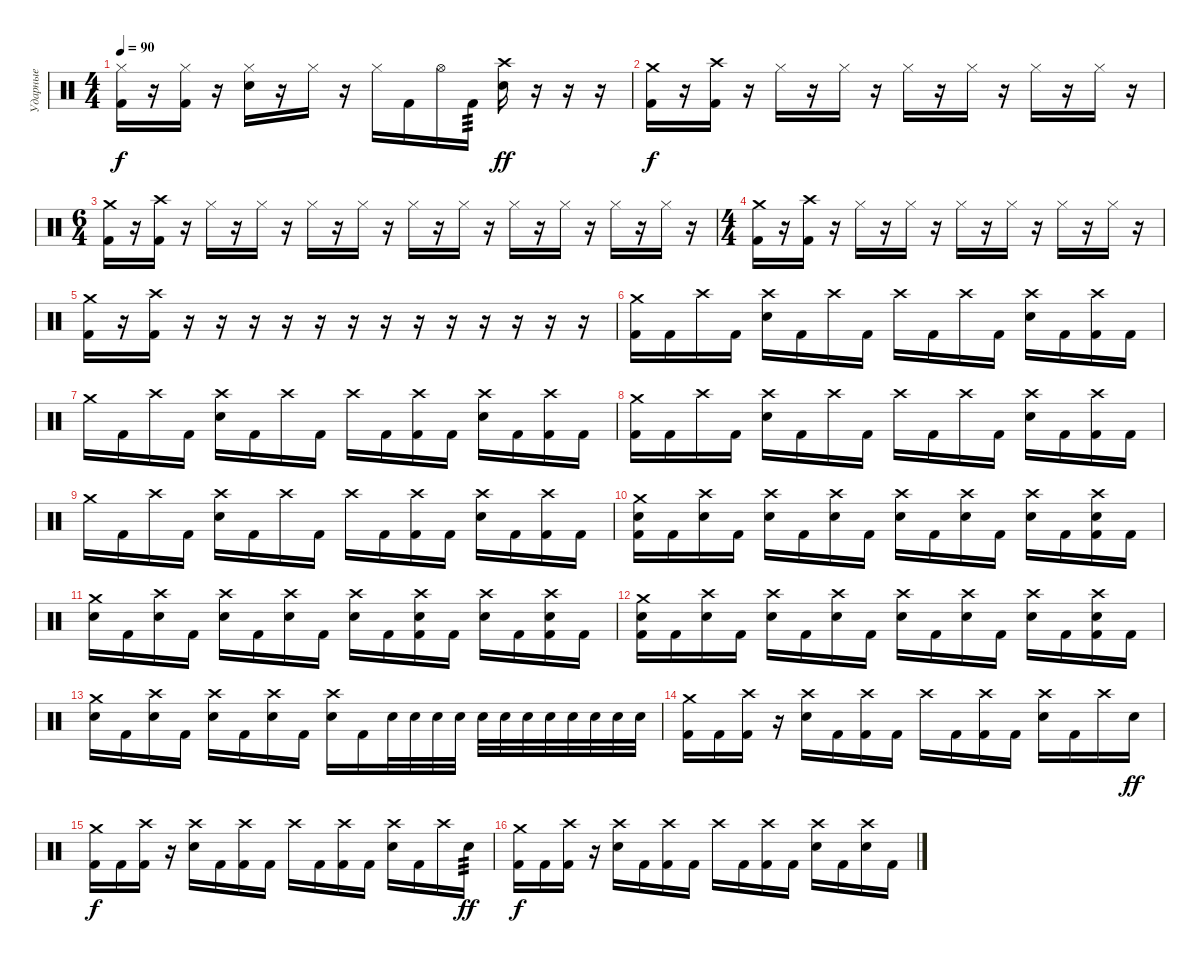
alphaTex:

\track ("Ударные" "Ударные") {instrument percussion}
\staff {score}
\articulation defaults
\ts (4 4)
\tempo 90
\clef neutral
\ks c
("Hi-Hat (closed)" "Kick (hit) 2").16{dy f} r.16 ("Hi-Hat (closed)" "Kick (hit) 2").16 r.16 ("Hi-Hat (closed)" "Electric Snare (hit)").16 r.16 "Hi-Hat (closed)".16 r.16 "Hi-Hat (closed)".16 "Kick (hit) 2".16 "Hi-Hat (open)".16 "Kick (hit) 2".16{tp 3} ("Crash high (hit)" "Electric Snare (hit)").16{dy ff} r.16 r.16 r.16 |
("Crash medium (hit)" "Kick (hit) 2").16{dy f} r.16 ("Crash high (hit)" "Kick (hit) 2").16 r.16 "Hi-Hat (closed)".16 r.16 "Hi-Hat (closed)".16 r.16 "Hi-Hat (closed)".16 r.16 "Hi-Hat (closed)".16 r.16 "Hi-Hat (closed)".16 r.16 "Hi-Hat (closed)".16 r.16 |
\ts (6 4)
("Crash medium (hit)" "Kick (hit) 2").16 r.16 ("Crash high (hit)" "Kick (hit) 2").16 r.16 "Hi-Hat (closed)".16 r.16 "Hi-Hat (closed)".16 r.16 "Hi-Hat (closed)".16 r.16 "Hi-Hat (closed)".16 r.16 "Hi-Hat (closed)".16 r.16 "Hi-Hat (closed)".16 r.16 "Hi-Hat (closed)".16 r.16 "Hi-Hat (closed)".16 r.16 "Hi-Hat (closed)".16 r.16 "Hi-Hat (closed)".16 r.16 |
\ts (4 4)
("Crash medium (hit)" "Kick (hit) 2").16 r.16 ("Crash high (hit)" "Kick (hit) 2").16 r.16 "Hi-Hat (closed)".16 r.16 "Hi-Hat (closed)".16 r.16 "Hi-Hat (closed)".16 r.16 "Hi-Hat (closed)".16 r.16 "Hi-Hat (closed)".16 r.16 "Hi-Hat (closed)".16 r.16 |
("Crash medium (hit)" "Kick (hit) 2").16 r.16 ("Crash high (hit)" "Kick (hit) 2").16 r.16 r.16 r.16 r.16 r.16 r.16 r.16 r.16 r.16 r.16 r.16 r.16 r.16 |
("Crash medium (hit)" "Kick (hit) 2").16 "Kick (hit) 2".16 "Crash high (hit)".16 "Kick (hit) 2".16 ("Crash high (hit)" "Electric Snare (hit)").16 "Kick (hit) 2".16 "Crash high (hit)".16 "Kick (hit) 2".16 "Crash high (hit)".16 "Kick (hit) 2".16 "Crash high (hit)".16 "Kick (hit) 2".16 ("Crash high (hit)" "Electric Snare (hit)").16 "Kick (hit) 2".16 ("Crash high (hit)" "Kick (hit) 2").16 "Kick (hit) 2".16 |
"Crash medium (hit)".16 "Kick (hit) 2".16 "Crash high (hit)".16 "Kick (hit) 2".16 ("Crash high (hit)" "Electric Snare (hit)").16 "Kick (hit) 2".16 "Crash high (hit)".16 "Kick (hit) 2".16 "Crash high (hit)".16 "Kick (hit) 2".16 ("Crash high (hit)" "Kick (hit) 2").16 "Kick (hit) 2".16 ("Crash high (hit)" "Electric Snare (hit)").16 "Kick (hit) 2".16 ("Crash high (hit)" "Kick (hit) 2").16 "Kick (hit) 2".16 |
("Crash medium (hit)" "Kick (hit) 2").16 "Kick (hit) 2".16 "Crash high (hit)".16 "Kick (hit) 2".16 ("Crash high (hit)" "Electric Snare (hit)").16 "Kick (hit) 2".16 "Crash high (hit)".16 "Kick (hit) 2".16 "Crash high (hit)".16 "Kick (hit) 2".16 "Crash high (hit)".16 "Kick (hit) 2".16 ("Crash high (hit)" "Electric Snare (hit)").16 "Kick (hit) 2".16 ("Crash high (hit)" "Kick (hit) 2").16 "Kick (hit) 2".16 |
"Crash medium (hit)".16 "Kick (hit) 2".16 "Crash high (hit)".16 "Kick (hit) 2".16 ("Crash high (hit)" "Electric Snare (hit)").16 "Kick (hit) 2".16 "Crash high (hit)".16 "Kick (hit) 2".16 "Crash high (hit)".16 "Kick (hit) 2".16 ("Crash high (hit)" "Kick (hit) 2").16 "Kick (hit) 2".16 ("Crash high (hit)" "Electric Snare (hit)").16 "Kick (hit) 2".16 ("Crash high (hit)" "Kick (hit) 2").16 "Kick (hit) 2".16 |
("Crash medium (hit)" "Electric Snare (hit)" "Kick (hit) 2").16 "Kick (hit) 2".16 ("Crash high (hit)" "Electric Snare (hit)").16 "Kick (hit) 2".16 ("Crash high (hit)" "Electric Snare (hit)").16 "Kick (hit) 2".16 ("Crash high (hit)" "Electric Snare (hit)").16 "Kick (hit) 2".16 ("Crash high (hit)" "Electric Snare (hit)").16 "Kick (hit) 2".16 ("Crash high (hit)" "Electric Snare (hit)").16 "Kick (hit) 2".16 ("Crash high (hit)" "Electric Snare (hit)").16 "Kick (hit) 2".16 ("Crash high (hit)" "Electric Snare (hit)" "Kick (hit) 2").16 "Kick (hit) 2".16 |
("Crash medium (hit)" "Electric Snare (hit)").16 "Kick (hit) 2".16 ("Crash high (hit)" "Electric Snare (hit)").16 "Kick (hit) 2".16 ("Crash high (hit)" "Electric Snare (hit)").16 "Kick (hit) 2".16 ("Crash high (hit)" "Electric Snare (hit)").16 "Kick (hit) 2".16 ("Crash high (hit)" "Electric Snare (hit)").16 "Kick (hit) 2".16 ("Crash high (hit)" "Electric Snare (hit)" "Kick (hit) 2").16 "Kick (hit) 2".16 ("Crash high (hit)" "Electric Snare (hit)").16 "Kick (hit) 2".16 ("Crash high (hit)" "Electric Snare (hit)" "Kick (hit) 2").16 "Kick (hit) 2".16 |
("Crash medium (hit)" "Electric Snare (hit)" "Kick (hit) 2").16 "Kick (hit) 2".16 ("Crash high (hit)" "Electric Snare (hit)").16 "Kick (hit) 2".16 ("Crash high (hit)" "Electric Snare (hit)").16 "Kick (hit) 2".16 ("Crash high (hit)" "Electric Snare (hit)").16 "Kick (hit) 2".16 ("Crash high (hit)" "Electric Snare (hit)").16 "Kick (hit) 2".16 ("Crash high (hit)" "Electric Snare (hit)").16 "Kick (hit) 2".16 ("Crash high (hit)" "Electric Snare (hit)").16 "Kick (hit) 2".16 ("Crash high (hit)" "Electric Snare (hit)" "Kick (hit) 2").16 "Kick (hit) 2".16 |
("Crash medium (hit)" "Electric Snare (hit)").16 "Kick (hit) 2".16 ("Crash high (hit)" "Electric Snare (hit)").16 "Kick (hit) 2".16 ("Crash high (hit)" "Electric Snare (hit)").16 "Kick (hit) 2".16 ("Crash high (hit)" "Electric Snare (hit)").16 "Kick (hit) 2".16 ("Crash high (hit)" "Electric Snare (hit)").16 "Kick (hit) 2".16 "Electric Snare (hit)".32 "Electric Snare (hit)".32 "Electric Snare (hit)".32 "Electric Snare (hit)".32 "Electric Snare (hit)".32 "Electric Snare (hit)".32 "Electric Snare (hit)".32 "Electric Snare (hit)".32 "Electric Snare (hit)".32 "Electric Snare (hit)".32 "Electric Snare (hit)".32 "Electric Snare (hit)".32 |
("Crash medium (hit)" "Kick (hit) 2").16 "Kick (hit) 2".16 ("Crash high (hit)" "Kick (hit) 2").16 r.16 ("Crash high (hit)" "Electric Snare (hit)").16 "Kick (hit) 2".16 ("Crash high (hit)" "Kick (hit) 2").16 "Kick (hit) 2".16 "Crash high (hit)".16 "Kick (hit) 2".16 ("Crash high (hit)" "Kick (hit) 2").16 "Kick (hit) 2".16 ("Crash high (hit)" "Electric Snare (hit)").16 "Kick (hit) 2".16 "Crash high (hit)".16 "Electric Snare (hit)".16{dy ff} |
("Crash medium (hit)" "Kick (hit) 2").16{dy f} "Kick (hit) 2".16 ("Crash high (hit)" "Kick (hit) 2").16 r.16 ("Crash high (hit)" "Electric Snare (hit)").16 "Kick (hit) 2".16 ("Crash high (hit)" "Kick (hit) 2").16 "Kick (hit) 2".16 "Crash high (hit)".16 "Kick (hit) 2".16 ("Crash high (hit)" "Kick (hit) 2").16 "Kick (hit) 2".16 ("Crash high (hit)" "Electric Snare (hit)").16 "Kick (hit) 2".16 "Crash high (hit)".16 "Electric Snare (hit)".16{tp 3 dy ff} |
("Crash medium (hit)" "Kick (hit) 2").16{dy f} "Kick (hit) 2".16 ("Crash high (hit)" "Kick (hit) 2").16 r.16 ("Crash high (hit)" "Electric Snare (hit)").16 "Kick (hit) 2".16 ("Crash high (hit)" "Kick (hit) 2").16 "Kick (hit) 2".16 "Crash high (hit)".16 "Kick (hit) 2".16 ("Crash high (hit)" "Kick (hit) 2").16 "Kick (hit) 2".16 ("Crash high (hit)" "Electric Snare (hit)").16 "Kick (hit) 2".16 ("Crash high (hit)" "Electric Snare (hit)").16 "Kick (hit) 2".16
